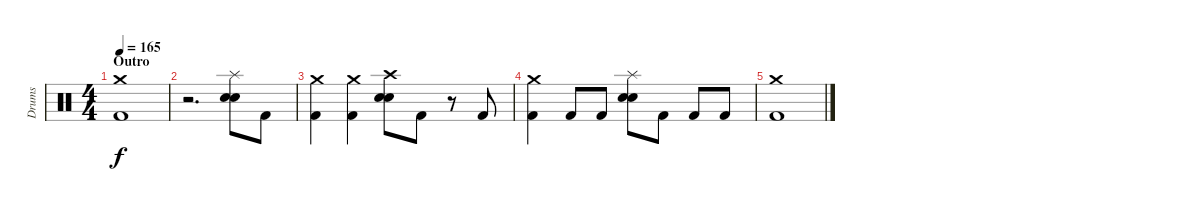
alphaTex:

\track ("Drums" "Drums") {instrument percussion}
\staff {score}
\articulation defaults
\ts (4 4)
\section ("" "Outro")
\tempo 165
\clef neutral
\ks c
("Crash medium (hit)" "Kick (hit) 2").1{dy f} |
r.2{d} ("Splash (hit)" "Electric Snare (hit)" "Snare (hit) 2").8 "Kick (hit) 2".8 |
("Crash medium (hit)" "Kick (hit) 2").4 ("Crash medium (hit)" "Kick (hit) 2").4 ("Crash high (hit)" "Electric Snare (hit)" "Snare (hit) 2").8 "Kick (hit) 2".8 r.8 "Kick (hit) 2".8 |
("Crash medium (hit)" "Kick (hit) 2").4 "Kick (hit) 2".8 "Kick (hit) 2".8 ("Splash (hit)" "Electric Snare (hit)" "Snare (hit) 2").8 "Kick (hit) 2".8 "Kick (hit) 2".8 "Kick (hit) 2".8 |
("Crash medium (hit)" "Kick (hit) 2").1
